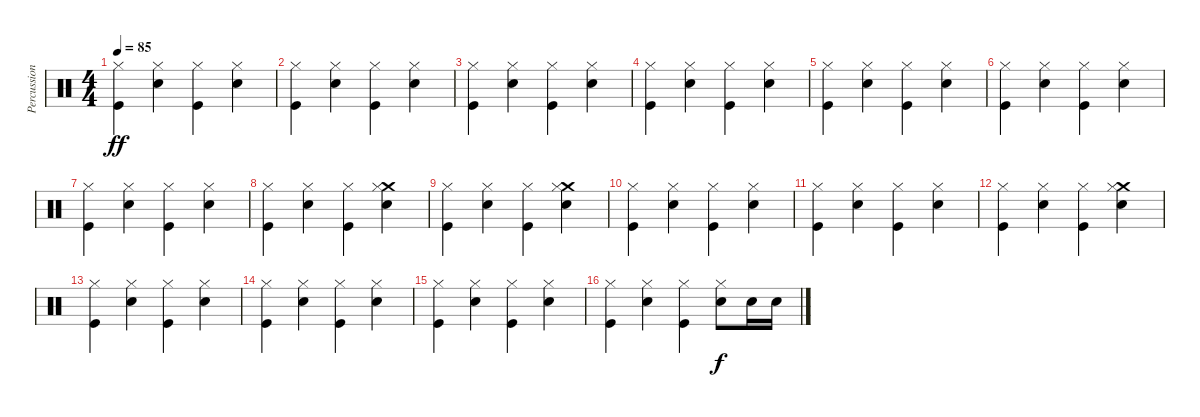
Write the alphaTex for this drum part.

\track ("Percussion" "Percussion") {instrument percussion}
\staff {score}
\articulation defaults
\ts (4 4)
\tempo 85
\clef neutral
\ks c
("Hi-Hat (closed)" "Kick (hit)").4{dy ff} ("Hi-Hat (closed)" "Snare (hit) 2").4 ("Hi-Hat (closed)" "Kick (hit)").4 ("Hi-Hat (closed)" "Snare (hit) 2").4 |
("Hi-Hat (closed)" "Kick (hit)").4 ("Hi-Hat (closed)" "Snare (hit) 2").4 ("Hi-Hat (closed)" "Kick (hit)").4 ("Hi-Hat (closed)" "Snare (hit) 2").4 |
("Hi-Hat (closed)" "Kick (hit)").4 ("Hi-Hat (closed)" "Snare (hit) 2").4 ("Hi-Hat (closed)" "Kick (hit)").4 ("Hi-Hat (closed)" "Snare (hit) 2").4 |
("Hi-Hat (closed)" "Kick (hit)").4 ("Hi-Hat (closed)" "Snare (hit) 2").4 ("Hi-Hat (closed)" "Kick (hit)").4 ("Hi-Hat (closed)" "Snare (hit) 2").4 |
("Hi-Hat (closed)" "Kick (hit)").4 ("Hi-Hat (closed)" "Snare (hit) 2").4 ("Hi-Hat (closed)" "Kick (hit)").4 ("Hi-Hat (closed)" "Snare (hit) 2").4 |
("Hi-Hat (closed)" "Kick (hit)").4 ("Hi-Hat (closed)" "Snare (hit) 2").4 ("Hi-Hat (closed)" "Kick (hit)").4 ("Hi-Hat (closed)" "Snare (hit) 2").4 |
("Hi-Hat (closed)" "Kick (hit)").4 ("Hi-Hat (closed)" "Snare (hit) 2").4 ("Hi-Hat (closed)" "Kick (hit)").4 ("Hi-Hat (closed)" "Snare (hit) 2").4 |
("Hi-Hat (closed)" "Kick (hit)").4 ("Hi-Hat (closed)" "Snare (hit) 2").4 ("Hi-Hat (closed)" "Kick (hit)").4 ("Crash medium (hit)" "Hi-Hat (closed)" "Snare (hit) 2").4 |
("Hi-Hat (closed)" "Kick (hit)").4 ("Hi-Hat (closed)" "Snare (hit) 2").4 ("Hi-Hat (closed)" "Kick (hit)").4 ("Crash medium (hit)" "Hi-Hat (closed)" "Snare (hit) 2").4 |
("Hi-Hat (closed)" "Kick (hit)").4 ("Hi-Hat (closed)" "Snare (hit) 2").4 ("Hi-Hat (closed)" "Kick (hit)").4 ("Hi-Hat (closed)" "Snare (hit) 2").4 |
("Hi-Hat (closed)" "Kick (hit)").4 ("Hi-Hat (closed)" "Snare (hit) 2").4 ("Hi-Hat (closed)" "Kick (hit)").4 ("Hi-Hat (closed)" "Snare (hit) 2").4 |
("Hi-Hat (closed)" "Kick (hit)").4 ("Hi-Hat (closed)" "Snare (hit) 2").4 ("Hi-Hat (closed)" "Kick (hit)").4 ("Crash medium (hit)" "Hi-Hat (closed)" "Snare (hit) 2").4 |
("Hi-Hat (closed)" "Kick (hit)").4 ("Hi-Hat (closed)" "Snare (hit) 2").4 ("Hi-Hat (closed)" "Kick (hit)").4 ("Hi-Hat (closed)" "Snare (hit) 2").4 |
("Hi-Hat (closed)" "Kick (hit)").4 ("Hi-Hat (closed)" "Snare (hit) 2").4 ("Hi-Hat (closed)" "Kick (hit)").4 ("Hi-Hat (closed)" "Snare (hit) 2").4 |
("Hi-Hat (closed)" "Kick (hit)").4 ("Hi-Hat (closed)" "Snare (hit) 2").4 ("Hi-Hat (closed)" "Kick (hit)").4 ("Hi-Hat (closed)" "Snare (hit) 2").4 |
("Hi-Hat (closed)" "Kick (hit)").4 ("Hi-Hat (closed)" "Snare (hit) 2").4 ("Hi-Hat (closed)" "Kick (hit)").4 ("Hi-Hat (closed)" "Snare (hit) 2").8{dy f} "Snare (hit) 2".16 "Snare (hit) 2".16
